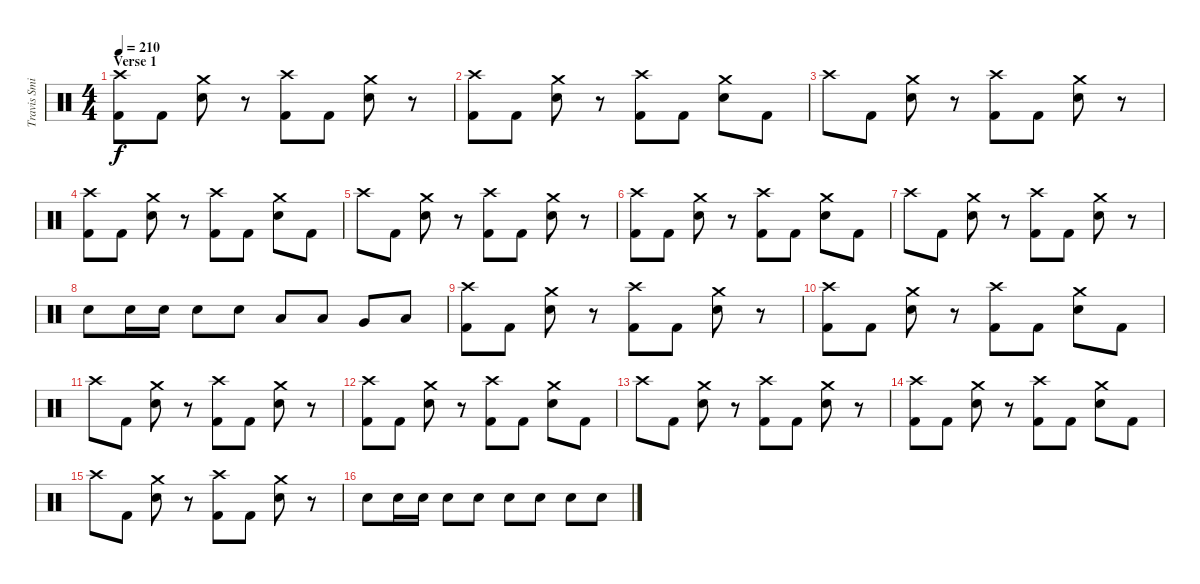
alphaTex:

\track ("Travis Smith" "Travis Smi") {instrument percussion}
\staff {score}
\articulation defaults
\ts (4 4)
\section ("" "Verse 1")
\tempo 210
\clef neutral
\ks c
("Crash high (hit)" "Kick (hit) 2").8{dy f} "Kick (hit) 2".8 ("Crash medium (hit)" "Electric Snare (hit)").8 r.8 ("Crash high (hit)" "Kick (hit) 2").8 "Kick (hit) 2".8 ("Crash medium (hit)" "Electric Snare (hit)").8 r.8 |
("Crash high (hit)" "Kick (hit) 2").8 "Kick (hit) 2".8 ("Crash medium (hit)" "Electric Snare (hit)").8 r.8 ("Crash high (hit)" "Kick (hit) 2").8 "Kick (hit) 2".8 ("Crash medium (hit)" "Electric Snare (hit)").8 "Kick (hit) 2".8 |
"Crash high (hit)".8 "Kick (hit) 2".8 ("Crash medium (hit)" "Electric Snare (hit)").8 r.8 ("Crash high (hit)" "Kick (hit) 2").8 "Kick (hit) 2".8 ("Crash medium (hit)" "Electric Snare (hit)").8 r.8 |
("Crash high (hit)" "Kick (hit) 2").8 "Kick (hit) 2".8 ("Crash medium (hit)" "Electric Snare (hit)").8 r.8 ("Crash high (hit)" "Kick (hit) 2").8 "Kick (hit) 2".8 ("Crash medium (hit)" "Electric Snare (hit)").8 "Kick (hit) 2".8 |
"Crash high (hit)".8 "Kick (hit) 2".8 ("Crash medium (hit)" "Electric Snare (hit)").8 r.8 ("Crash high (hit)" "Kick (hit) 2").8 "Kick (hit) 2".8 ("Crash medium (hit)" "Electric Snare (hit)").8 r.8 |
("Crash high (hit)" "Kick (hit) 2").8 "Kick (hit) 2".8 ("Crash medium (hit)" "Electric Snare (hit)").8 r.8 ("Crash high (hit)" "Kick (hit) 2").8 "Kick (hit) 2".8 ("Crash medium (hit)" "Electric Snare (hit)").8 "Kick (hit) 2".8 |
"Crash high (hit)".8 "Kick (hit) 2".8 ("Crash medium (hit)" "Electric Snare (hit)").8 r.8 ("Crash high (hit)" "Kick (hit) 2").8 "Kick (hit) 2".8 ("Crash medium (hit)" "Electric Snare (hit)").8 r.8 |
"Electric Snare (hit)".8 "Electric Snare (hit)".16 "Electric Snare (hit)".16 "Electric Snare (hit)".8 "Electric Snare (hit)".8 "Low Tom (hit)".8 "Low Tom (hit)".8 "Very Low Tom (hit)".8 "Low Floor Tom (hit)".8 |
("Crash high (hit)" "Kick (hit) 2").8 "Kick (hit) 2".8 ("Crash medium (hit)" "Electric Snare (hit)").8 r.8 ("Crash high (hit)" "Kick (hit) 2").8 "Kick (hit) 2".8 ("Crash medium (hit)" "Electric Snare (hit)").8 r.8 |
("Crash high (hit)" "Kick (hit) 2").8 "Kick (hit) 2".8 ("Crash medium (hit)" "Electric Snare (hit)").8 r.8 ("Crash high (hit)" "Kick (hit) 2").8 "Kick (hit) 2".8 ("Crash medium (hit)" "Electric Snare (hit)").8 "Kick (hit) 2".8 |
"Crash high (hit)".8 "Kick (hit) 2".8 ("Crash medium (hit)" "Electric Snare (hit)").8 r.8 ("Crash high (hit)" "Kick (hit) 2").8 "Kick (hit) 2".8 ("Crash medium (hit)" "Electric Snare (hit)").8 r.8 |
("Crash high (hit)" "Kick (hit) 2").8 "Kick (hit) 2".8 ("Crash medium (hit)" "Electric Snare (hit)").8 r.8 ("Crash high (hit)" "Kick (hit) 2").8 "Kick (hit) 2".8 ("Crash medium (hit)" "Electric Snare (hit)").8 "Kick (hit) 2".8 |
"Crash high (hit)".8 "Kick (hit) 2".8 ("Crash medium (hit)" "Electric Snare (hit)").8 r.8 ("Crash high (hit)" "Kick (hit) 2").8 "Kick (hit) 2".8 ("Crash medium (hit)" "Electric Snare (hit)").8 r.8 |
("Crash high (hit)" "Kick (hit) 2").8 "Kick (hit) 2".8 ("Crash medium (hit)" "Electric Snare (hit)").8 r.8 ("Crash high (hit)" "Kick (hit) 2").8 "Kick (hit) 2".8 ("Crash medium (hit)" "Electric Snare (hit)").8 "Kick (hit) 2".8 |
"Crash high (hit)".8 "Kick (hit) 2".8 ("Crash medium (hit)" "Electric Snare (hit)").8 r.8 ("Crash high (hit)" "Kick (hit) 2").8 "Kick (hit) 2".8 ("Crash medium (hit)" "Electric Snare (hit)").8 r.8 |
"Electric Snare (hit)".8 "Electric Snare (hit)".16 "Electric Snare (hit)".16 "Electric Snare (hit)".8 "Electric Snare (hit)".8 "Electric Snare (hit)".8 "Electric Snare (hit)".8 "Electric Snare (hit)".8 "Electric Snare (hit)".8
